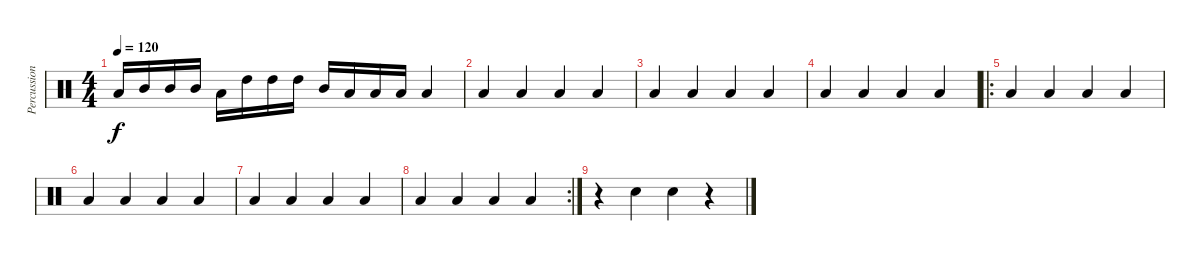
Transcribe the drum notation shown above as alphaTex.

\track ("Percussion" "Percussion") {instrument percussion}
\staff {score}
\articulation defaults
\ts (4 4)
\tempo 120
\clef neutral
\ks c "Low Tom (hit)".16{dy f} "Mid Tom (hit)".16 "Mid Tom (hit)".16 "Mid Tom (hit)".16 "Low Tom (hit)".16 "High Tom (hit)".16 "High Tom (hit)".16 "High Tom (hit)".16 "Mid Tom (hit)".16 "Low Tom (hit)".16 "Low Tom (hit)".16 "Low Tom (hit)".16 "Low Tom (hit)".4
|
"Low Tom (hit)".4 "Low Tom (hit)".4 "Low Tom (hit)".4 "Low Tom (hit)".4 |
"Low Tom (hit)".4 "Low Tom (hit)".4 "Low Tom (hit)".4 "Low Tom (hit)".4 |
"Low Tom (hit)".4 "Low Tom (hit)".4 "Low Tom (hit)".4 "Low Tom (hit)".4 |
\ro "Low Tom (hit)".4 "Low Tom (hit)".4 "Low Tom (hit)".4 "Low Tom (hit)".4
|
"Low Tom (hit)".4 "Low Tom (hit)".4 "Low Tom (hit)".4 "Low Tom (hit)".4 |
"Low Tom (hit)".4 "Low Tom (hit)".4 "Low Tom (hit)".4 "Low Tom (hit)".4 |
\rc 2 "Low Tom (hit)".4 "Low Tom (hit)".4 "Low Tom (hit)".4 "Low Tom (hit)".4
|
r.4 "Snare (hit) 2".4 "Snare (hit) 2".4 r.4
